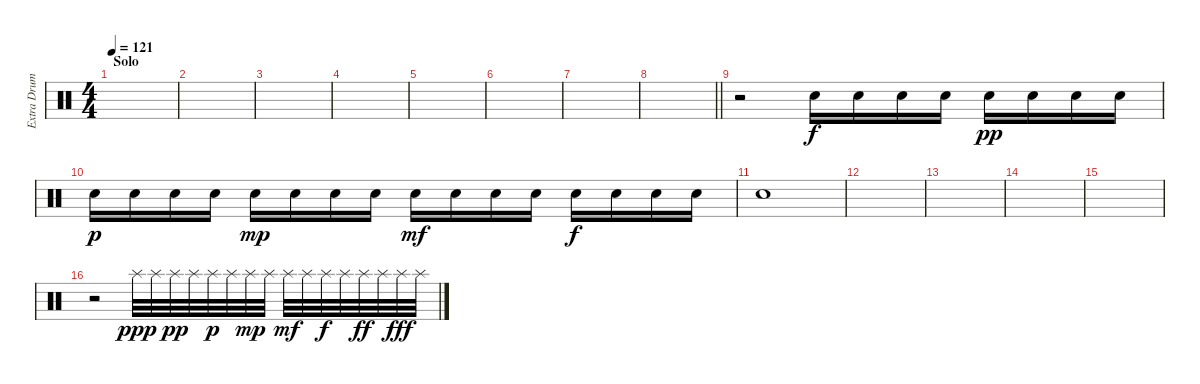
\track ("Extra Drum" "Extra Drum") {instrument percussion}
\staff {score}
\articulation defaults
\ts (4 4)
\section ("" "Solo")
\tempo 121
\clef neutral
\ks c
|
|
|
|
|
|
|
\barLineRight lightlight
|
r.2 "Snare (hit) 2".16 "Snare (hit) 2".16 "Snare (hit) 2".16 "Snare (hit) 2".16 "Snare (hit) 2".16{dy pp} "Snare (hit) 2".16 "Snare (hit) 2".16 "Snare (hit) 2".16 |
"Snare (hit) 2".16{dy p} "Snare (hit) 2".16 "Snare (hit) 2".16 "Snare (hit) 2".16 "Snare (hit) 2".16{dy mp} "Snare (hit) 2".16 "Snare (hit) 2".16 "Snare (hit) 2".16 "Snare (hit) 2".16{dy mf} "Snare (hit) 2".16 "Snare (hit) 2".16 "Snare (hit) 2".16 "Snare (hit) 2".16{dy f} "Snare (hit) 2".16 "Snare (hit) 2".16 "Snare (hit) 2".16 |
"Snare (hit) 2".1 |
|
|
|
|
r.2 "Splash (hit)".32{dy ppp} "Splash (hit)".32 "Splash (hit)".32{dy pp} "Splash (hit)".32 "Splash (hit)".32{dy p} "Splash (hit)".32 "Splash (hit)".32{dy mp} "Splash (hit)".32 "Splash (hit)".32{dy mf} "Splash (hit)".32 "Splash (hit)".32{dy f} "Splash (hit)".32 "Splash (hit)".32{dy ff} "Splash (hit)".32 "Splash (hit)".32{dy fff} "Splash (hit)".32
